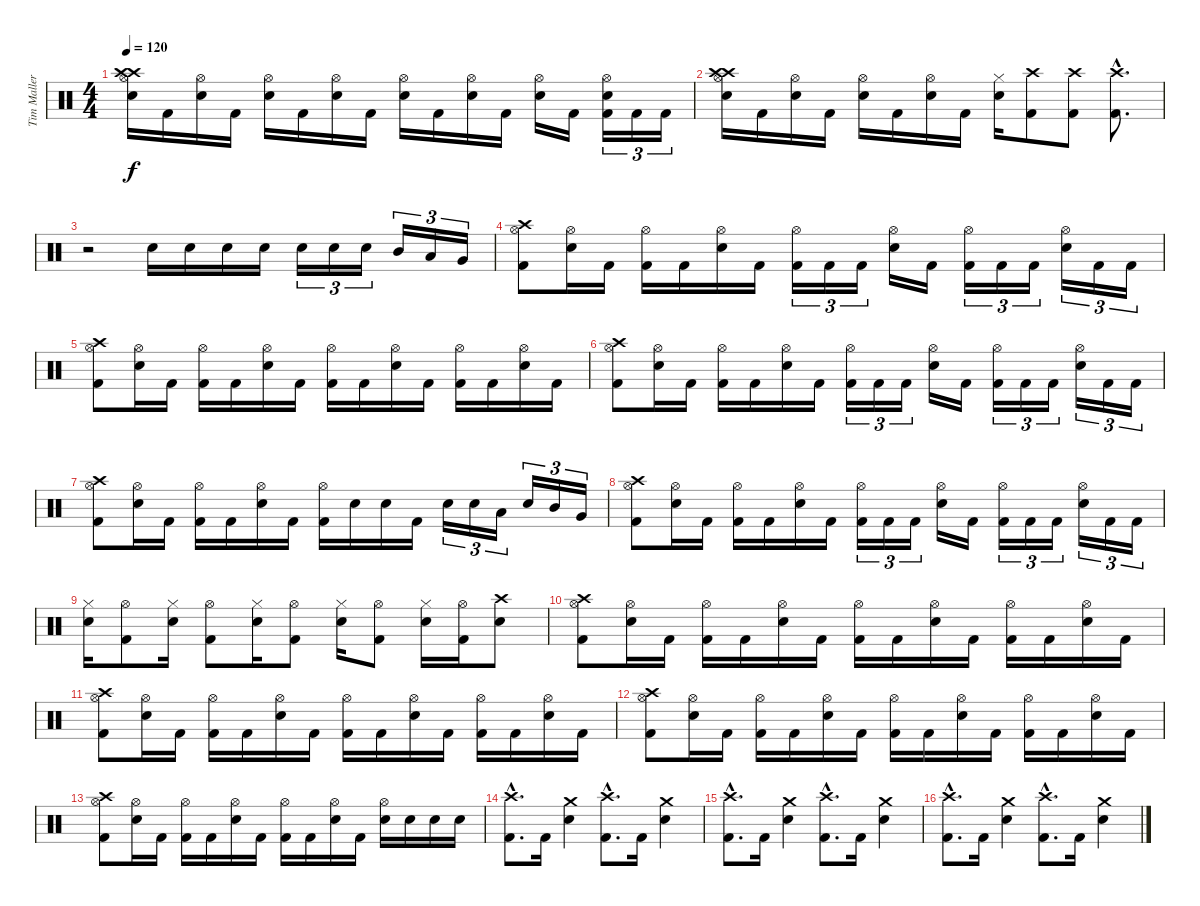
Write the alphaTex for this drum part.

\track ("Tim Mallere" "Tim Maller") {instrument percussion}
\staff {score}
\articulation defaults
\ts (4 4)
\tempo 120
\clef neutral
\ks c
("Crash high (hit)" "Hi-Hat (open)" "Electric Snare (hit)" "Crash high (hit)").16{dy f} "Kick (hit) 2".16 ("Hi-Hat (open)" "Electric Snare (hit)").16 "Kick (hit) 2".16 ("Hi-Hat (open)" "Electric Snare (hit)").16 "Kick (hit) 2".16 ("Hi-Hat (open)" "Electric Snare (hit)").16 "Kick (hit) 2".16 ("Hi-Hat (open)" "Electric Snare (hit)").16 "Kick (hit) 2".16 ("Hi-Hat (open)" "Electric Snare (hit)").16 "Kick (hit) 2".16 ("Hi-Hat (open)" "Electric Snare (hit)").16 "Kick (hit) 2".16 ("Hi-Hat (open)" "Electric Snare (hit)" "Kick (hit) 2").16{tu (3 2)} "Kick (hit) 2".16{tu (3 2)} "Kick (hit) 2".16{tu (3 2)} |
("Crash high (hit)" "Hi-Hat (open)" "Electric Snare (hit)" "Crash high (hit)").16 "Kick (hit) 2".16 ("Hi-Hat (open)" "Electric Snare (hit)").16 "Kick (hit) 2".16 ("Hi-Hat (open)" "Electric Snare (hit)").16 "Kick (hit) 2".16 ("Hi-Hat (open)" "Electric Snare (hit)").16 "Kick (hit) 2".16 ("Hi-Hat (closed)" "Electric Snare (hit)").16 ("Crash high (hit)" "Kick (hit) 2").8 ("Crash high (hit)" "Kick (hit) 2").8 ("Crash high (hit)"{hac} "Kick (hit) 2"{hac}).8{d} |
r.2 "Electric Snare (hit)".16 "Electric Snare (hit)".16 "Electric Snare (hit)".16 "Electric Snare (hit)".16 "Electric Snare (hit)".16{tu (3 2)} "Electric Snare (hit)".16{tu (3 2)} "Electric Snare (hit)".16{tu (3 2)} "Mid Tom (hit)".16{tu (3 2)} "Low Tom (hit)".16{tu (3 2)} "Very Low Tom (hit)".16{tu (3 2)} |
("Crash high (hit)" "Hi-Hat (open)" "Kick (hit) 2").8 ("Electric Snare (hit)" "Hi-Hat (open)").16 "Kick (hit) 2".16 ("Hi-Hat (open)" "Kick (hit) 2").16 "Kick (hit) 2".16 ("Electric Snare (hit)" "Hi-Hat (open)").16 "Kick (hit) 2".16 ("Hi-Hat (open)" "Kick (hit) 2").16{tu (3 2)} "Kick (hit) 2".16{tu (3 2)} "Kick (hit) 2".16{tu (3 2)} ("Electric Snare (hit)" "Hi-Hat (open)").16 "Kick (hit) 2".16 ("Hi-Hat (open)" "Kick (hit) 2").16{tu (3 2)} "Kick (hit) 2".16{tu (3 2)} "Kick (hit) 2".16{tu (3 2)} ("Electric Snare (hit)" "Hi-Hat (open)").16{tu (3 2)} "Kick (hit) 2".16{tu (3 2)} "Kick (hit) 2".16{tu (3 2)} |
("Crash high (hit)" "Hi-Hat (open)" "Kick (hit) 2").8 ("Hi-Hat (open)" "Electric Snare (hit)").16 "Kick (hit) 2".16 ("Hi-Hat (open)" "Kick (hit) 2").16 "Kick (hit) 2".16 ("Hi-Hat (open)" "Electric Snare (hit)").16 "Kick (hit) 2".16 ("Hi-Hat (open)" "Kick (hit) 2").16 "Kick (hit) 2".16 ("Hi-Hat (open)" "Electric Snare (hit)").16 "Kick (hit) 2".16 ("Hi-Hat (open)" "Kick (hit) 2").16 "Kick (hit) 2".16 ("Hi-Hat (open)" "Electric Snare (hit)").16 "Kick (hit) 2".16 |
("Crash high (hit)" "Hi-Hat (open)" "Kick (hit) 2").8 ("Electric Snare (hit)" "Hi-Hat (open)").16 "Kick (hit) 2".16 ("Hi-Hat (open)" "Kick (hit) 2").16 "Kick (hit) 2".16 ("Electric Snare (hit)" "Hi-Hat (open)").16 "Kick (hit) 2".16 ("Hi-Hat (open)" "Kick (hit) 2").16{tu (3 2)} "Kick (hit) 2".16{tu (3 2)} "Kick (hit) 2".16{tu (3 2)} ("Electric Snare (hit)" "Hi-Hat (open)").16 "Kick (hit) 2".16 ("Hi-Hat (open)" "Kick (hit) 2").16{tu (3 2)} "Kick (hit) 2".16{tu (3 2)} "Kick (hit) 2".16{tu (3 2)} ("Electric Snare (hit)" "Hi-Hat (open)").16{tu (3 2)} "Kick (hit) 2".16{tu (3 2)} "Kick (hit) 2".16{tu (3 2)} |
("Crash high (hit)" "Hi-Hat (open)" "Kick (hit) 2").8 ("Hi-Hat (open)" "Electric Snare (hit)").16 "Kick (hit) 2".16 ("Hi-Hat (open)" "Kick (hit) 2").16 "Kick (hit) 2".16 ("Hi-Hat (open)" "Electric Snare (hit)").16 "Kick (hit) 2".16 ("Hi-Hat (open)" "Kick (hit) 2").16 "Electric Snare (hit)".16 "Electric Snare (hit)".16 "Kick (hit) 2".16 "Electric Snare (hit)".16{tu (3 2)} "Electric Snare (hit)".16{tu (3 2)} "Low Tom (hit)".16{tu (3 2)} "Electric Snare (hit)".16{tu (3 2)} "Mid Tom (hit)".16{tu (3 2)} "Very Low Tom (hit)".16{tu (3 2)} |
("Crash high (hit)" "Hi-Hat (open)" "Kick (hit) 2").8 ("Electric Snare (hit)" "Hi-Hat (open)").16 "Kick (hit) 2".16 ("Hi-Hat (open)" "Kick (hit) 2").16 "Kick (hit) 2".16 ("Electric Snare (hit)" "Hi-Hat (open)").16 "Kick (hit) 2".16 ("Hi-Hat (open)" "Kick (hit) 2").16{tu (3 2)} "Kick (hit) 2".16{tu (3 2)} "Kick (hit) 2".16{tu (3 2)} ("Electric Snare (hit)" "Hi-Hat (open)").16 "Kick (hit) 2".16 ("Hi-Hat (open)" "Kick (hit) 2").16{tu (3 2)} "Kick (hit) 2".16{tu (3 2)} "Kick (hit) 2".16{tu (3 2)} ("Electric Snare (hit)" "Hi-Hat (open)").16{tu (3 2)} "Kick (hit) 2".16{tu (3 2)} "Kick (hit) 2".16{tu (3 2)} |
("Hi-Hat (closed)" "Electric Snare (hit)").16 ("Hi-Hat (open)" "Kick (hit) 2").8 ("Hi-Hat (closed)" "Electric Snare (hit)").16 ("Hi-Hat (open)" "Kick (hit) 2").8 ("Hi-Hat (closed)" "Electric Snare (hit)").16 ("Hi-Hat (open)" "Kick (hit) 2").8 ("Hi-Hat (closed)" "Electric Snare (hit)").16 ("Hi-Hat (open)" "Kick (hit) 2").8 ("Hi-Hat (closed)" "Electric Snare (hit)").16 ("Hi-Hat (open)" "Kick (hit) 2").16 ("Crash high (hit)" "Electric Snare (hit)").8 |
("Crash high (hit)" "Hi-Hat (open)" "Kick (hit) 2").8 ("Hi-Hat (open)" "Electric Snare (hit)").16 "Kick (hit) 2".16 ("Hi-Hat (open)" "Kick (hit) 2").16 "Kick (hit) 2".16 ("Hi-Hat (open)" "Electric Snare (hit)").16 "Kick (hit) 2".16 ("Hi-Hat (open)" "Kick (hit) 2").16 "Kick (hit) 2".16 ("Hi-Hat (open)" "Electric Snare (hit)").16 "Kick (hit) 2".16 ("Hi-Hat (open)" "Kick (hit) 2").16 "Kick (hit) 2".16 ("Hi-Hat (open)" "Electric Snare (hit)").16 "Kick (hit) 2".16 |
("Crash high (hit)" "Hi-Hat (open)" "Kick (hit) 2").8 ("Hi-Hat (open)" "Electric Snare (hit)").16 "Kick (hit) 2".16 ("Hi-Hat (open)" "Kick (hit) 2").16 "Kick (hit) 2".16 ("Hi-Hat (open)" "Electric Snare (hit)").16 "Kick (hit) 2".16 ("Hi-Hat (open)" "Kick (hit) 2").16 "Kick (hit) 2".16 ("Hi-Hat (open)" "Electric Snare (hit)").16 "Kick (hit) 2".16 ("Hi-Hat (open)" "Kick (hit) 2").16 "Kick (hit) 2".16 ("Hi-Hat (open)" "Electric Snare (hit)").16 "Kick (hit) 2".16 |
("Crash high (hit)" "Hi-Hat (open)" "Kick (hit) 2").8 ("Hi-Hat (open)" "Electric Snare (hit)").16 "Kick (hit) 2".16 ("Hi-Hat (open)" "Kick (hit) 2").16 "Kick (hit) 2".16 ("Hi-Hat (open)" "Electric Snare (hit)").16 "Kick (hit) 2".16 ("Hi-Hat (open)" "Kick (hit) 2").16 "Kick (hit) 2".16 ("Hi-Hat (open)" "Electric Snare (hit)").16 "Kick (hit) 2".16 ("Hi-Hat (open)" "Kick (hit) 2").16 "Kick (hit) 2".16 ("Hi-Hat (open)" "Electric Snare (hit)").16 "Kick (hit) 2".16 |
("Crash high (hit)" "Hi-Hat (open)" "Kick (hit) 2").8 ("Hi-Hat (open)" "Electric Snare (hit)").16 "Kick (hit) 2".16 ("Hi-Hat (open)" "Kick (hit) 2").16 "Kick (hit) 2".16 ("Hi-Hat (open)" "Electric Snare (hit)").16 "Kick (hit) 2".16 ("Hi-Hat (open)" "Kick (hit) 2").16 "Kick (hit) 2".16 ("Hi-Hat (open)" "Electric Snare (hit)").16 "Kick (hit) 2".16 ("Hi-Hat (open)" "Electric Snare (hit)").16 "Electric Snare (hit)".16 "Electric Snare (hit)".16 "Electric Snare (hit)".16 |
("Crash high (hit)"{hac} "Kick (hit) 2"{hac}).8{d} "Kick (hit) 2".16 ("Crash medium (hit)" "Electric Snare (hit)").4 ("Crash high (hit)"{hac} "Kick (hit) 2"{hac}).8{d} "Kick (hit) 2".16 ("Crash medium (hit)" "Electric Snare (hit)").4 |
("Crash high (hit)"{hac} "Kick (hit) 2"{hac}).8{d} "Kick (hit) 2".16 ("Crash medium (hit)" "Electric Snare (hit)").4 ("Crash high (hit)"{hac} "Kick (hit) 2"{hac}).8{d} "Kick (hit) 2".16 ("Crash medium (hit)" "Electric Snare (hit)").4 |
("Crash high (hit)"{hac} "Kick (hit) 2"{hac}).8{d} "Kick (hit) 2".16 ("Crash medium (hit)" "Electric Snare (hit)").4 ("Crash high (hit)"{hac} "Kick (hit) 2"{hac}).8{d} "Kick (hit) 2".16 ("Crash medium (hit)" "Electric Snare (hit)").4
